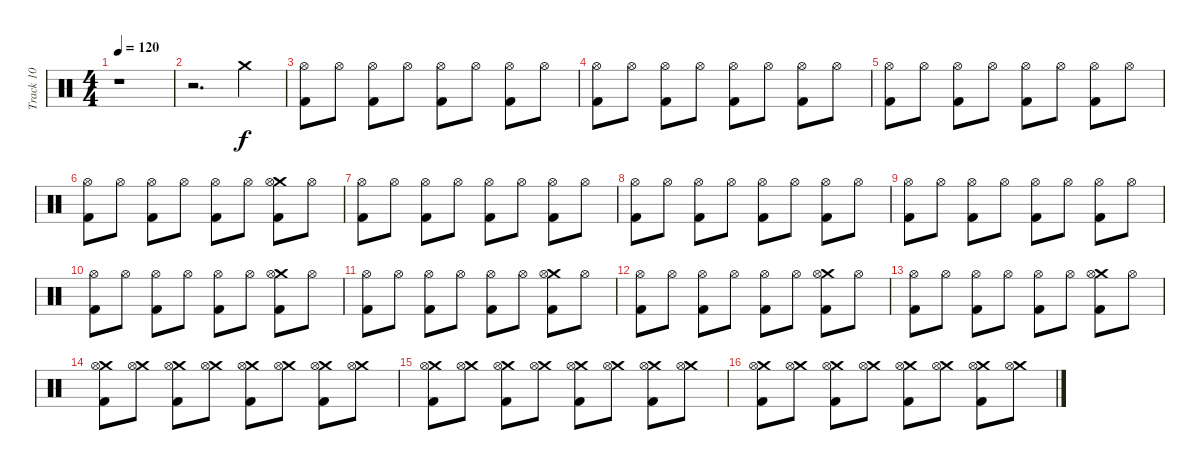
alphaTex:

\track ("Track 10" "Track 10") {instrument percussion}
\staff {score}
\articulation defaults
\ts (4 4)
\tempo 120
\clef neutral
\ks c
r.1{dy f} |
r.2{d} "Crash medium (hit)".4 |
("Hi-Hat (open)" "Kick (hit) 2").8 "Hi-Hat (open)".8 ("Hi-Hat (open)" "Kick (hit) 2").8 "Hi-Hat (open)".8 ("Hi-Hat (open)" "Kick (hit) 2").8 "Hi-Hat (open)".8 ("Hi-Hat (open)" "Kick (hit) 2").8 "Hi-Hat (open)".8 |
("Hi-Hat (open)" "Kick (hit) 2").8 "Hi-Hat (open)".8 ("Hi-Hat (open)" "Kick (hit) 2").8 "Hi-Hat (open)".8 ("Hi-Hat (open)" "Kick (hit) 2").8 "Hi-Hat (open)".8 ("Hi-Hat (open)" "Kick (hit) 2").8 "Hi-Hat (open)".8 |
("Hi-Hat (open)" "Kick (hit) 2").8 "Hi-Hat (open)".8 ("Hi-Hat (open)" "Kick (hit) 2").8 "Hi-Hat (open)".8 ("Hi-Hat (open)" "Kick (hit) 2").8 "Hi-Hat (open)".8 ("Hi-Hat (open)" "Kick (hit) 2").8 "Hi-Hat (open)".8 |
("Hi-Hat (open)" "Kick (hit) 2").8 "Hi-Hat (open)".8 ("Hi-Hat (open)" "Kick (hit) 2").8 "Hi-Hat (open)".8 ("Hi-Hat (open)" "Kick (hit) 2").8 "Hi-Hat (open)".8 ("Crash medium (hit)" "Hi-Hat (open)" "Kick (hit) 2").8 "Hi-Hat (open)".8 |
("Hi-Hat (open)" "Kick (hit) 2").8 "Hi-Hat (open)".8 ("Hi-Hat (open)" "Kick (hit) 2").8 "Hi-Hat (open)".8 ("Hi-Hat (open)" "Kick (hit) 2").8 "Hi-Hat (open)".8 ("Hi-Hat (open)" "Kick (hit) 2").8 "Hi-Hat (open)".8 |
("Hi-Hat (open)" "Kick (hit) 2").8 "Hi-Hat (open)".8 ("Hi-Hat (open)" "Kick (hit) 2").8 "Hi-Hat (open)".8 ("Hi-Hat (open)" "Kick (hit) 2").8 "Hi-Hat (open)".8 ("Hi-Hat (open)" "Kick (hit) 2").8 "Hi-Hat (open)".8 |
("Hi-Hat (open)" "Kick (hit) 2").8 "Hi-Hat (open)".8 ("Hi-Hat (open)" "Kick (hit) 2").8 "Hi-Hat (open)".8 ("Hi-Hat (open)" "Kick (hit) 2").8 "Hi-Hat (open)".8 ("Hi-Hat (open)" "Kick (hit) 2").8 "Hi-Hat (open)".8 |
("Hi-Hat (open)" "Kick (hit) 2").8 "Hi-Hat (open)".8 ("Hi-Hat (open)" "Kick (hit) 2").8 "Hi-Hat (open)".8 ("Hi-Hat (open)" "Kick (hit) 2").8 "Hi-Hat (open)".8 ("Crash medium (hit)" "Hi-Hat (open)" "Kick (hit) 2").8 "Hi-Hat (open)".8 |
("Hi-Hat (open)" "Kick (hit) 2").8 "Hi-Hat (open)".8 ("Hi-Hat (open)" "Kick (hit) 2").8 "Hi-Hat (open)".8 ("Hi-Hat (open)" "Kick (hit) 2").8 "Hi-Hat (open)".8 ("Crash medium (hit)" "Hi-Hat (open)" "Kick (hit) 2").8 "Hi-Hat (open)".8 |
("Hi-Hat (open)" "Kick (hit) 2").8 "Hi-Hat (open)".8 ("Hi-Hat (open)" "Kick (hit) 2").8 "Hi-Hat (open)".8 ("Hi-Hat (open)" "Kick (hit) 2").8 "Hi-Hat (open)".8 ("Crash medium (hit)" "Hi-Hat (open)" "Kick (hit) 2").8 "Hi-Hat (open)".8 |
("Hi-Hat (open)" "Kick (hit) 2").8 "Hi-Hat (open)".8 ("Hi-Hat (open)" "Kick (hit) 2").8 "Hi-Hat (open)".8 ("Hi-Hat (open)" "Kick (hit) 2").8 "Hi-Hat (open)".8 ("Crash medium (hit)" "Hi-Hat (open)" "Kick (hit) 2").8 "Hi-Hat (open)".8 |
("Crash medium (hit)" "Hi-Hat (open)" "Kick (hit) 2").8 ("Crash medium (hit)" "Hi-Hat (open)").8 ("Crash medium (hit)" "Hi-Hat (open)" "Kick (hit) 2").8 ("Crash medium (hit)" "Hi-Hat (open)").8 ("Crash medium (hit)" "Hi-Hat (open)" "Kick (hit) 2").8 ("Crash medium (hit)" "Hi-Hat (open)").8 ("Crash medium (hit)" "Hi-Hat (open)" "Kick (hit) 2").8 ("Crash medium (hit)" "Hi-Hat (open)").8 |
("Crash medium (hit)" "Hi-Hat (open)" "Kick (hit) 2").8 ("Crash medium (hit)" "Hi-Hat (open)").8 ("Crash medium (hit)" "Hi-Hat (open)" "Kick (hit) 2").8 ("Crash medium (hit)" "Hi-Hat (open)").8 ("Crash medium (hit)" "Hi-Hat (open)" "Kick (hit) 2").8 ("Crash medium (hit)" "Hi-Hat (open)").8 ("Crash medium (hit)" "Hi-Hat (open)" "Kick (hit) 2").8 ("Crash medium (hit)" "Hi-Hat (open)").8 |
("Crash medium (hit)" "Hi-Hat (open)" "Kick (hit) 2").8 ("Crash medium (hit)" "Hi-Hat (open)").8 ("Crash medium (hit)" "Hi-Hat (open)" "Kick (hit) 2").8 ("Crash medium (hit)" "Hi-Hat (open)").8 ("Crash medium (hit)" "Hi-Hat (open)" "Kick (hit) 2").8 ("Crash medium (hit)" "Hi-Hat (open)").8 ("Crash medium (hit)" "Hi-Hat (open)" "Kick (hit) 2").8 ("Crash medium (hit)" "Hi-Hat (open)").8
